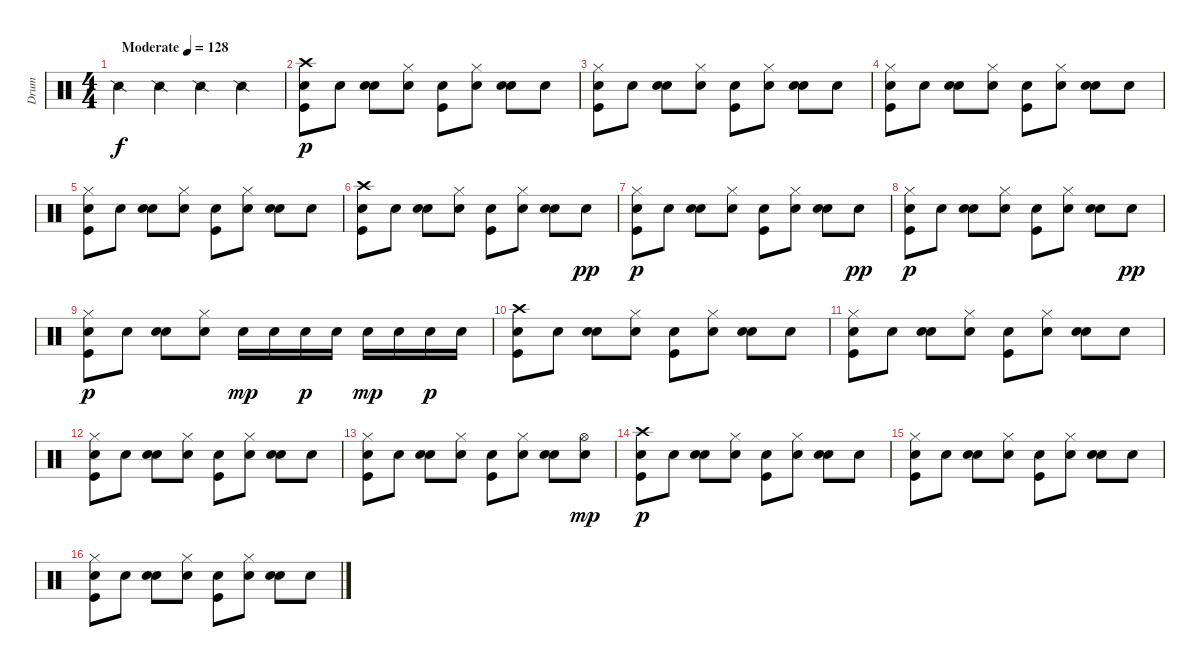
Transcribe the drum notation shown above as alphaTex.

\track ("Drum" "Drum") {instrument percussion}
\staff {score}
\articulation defaults
\ts (4 4)
\tempo (128 "Moderate")
\clef neutral
\ks c "Snare (side stick) 2".4{dy f} "Snare (side stick) 2".4 "Snare (side stick) 2".4 "Snare (side stick) 2".4
|
("Crash high (hit)" "Snare (hit) 2" "Kick (hit)").8{dy p} "Snare (hit) 2".8 ("Snare (hit) 2" "Snare (hit) 2").8 ("Snare (hit) 2" "Hi-Hat (closed)").8 ("Snare (hit) 2" "Kick (hit)").8 ("Snare (hit) 2" "Hi-Hat (closed)").8 ("Snare (hit) 2" "Snare (hit) 2").8 "Snare (hit) 2".8 |
("Snare (hit) 2" "Kick (hit)" "Hi-Hat (closed)").8 "Snare (hit) 2".8 ("Snare (hit) 2" "Snare (hit) 2").8 ("Snare (hit) 2" "Hi-Hat (closed)").8 ("Snare (hit) 2" "Kick (hit)").8 ("Snare (hit) 2" "Hi-Hat (closed)").8 ("Snare (hit) 2" "Snare (hit) 2").8 "Snare (hit) 2".8 |
("Snare (hit) 2" "Kick (hit)" "Hi-Hat (closed)").8 "Snare (hit) 2".8 ("Snare (hit) 2" "Snare (hit) 2").8 ("Snare (hit) 2" "Hi-Hat (closed)").8 ("Snare (hit) 2" "Kick (hit)").8 ("Snare (hit) 2" "Hi-Hat (closed)").8 ("Snare (hit) 2" "Snare (hit) 2").8 "Snare (hit) 2".8 |
("Snare (hit) 2" "Kick (hit)" "Hi-Hat (closed)").8 "Snare (hit) 2".8 ("Snare (hit) 2" "Snare (hit) 2").8 ("Snare (hit) 2" "Hi-Hat (closed)").8 ("Snare (hit) 2" "Kick (hit)").8 ("Snare (hit) 2" "Hi-Hat (closed)").8 ("Snare (hit) 2" "Snare (hit) 2").8 "Snare (hit) 2".8 |
("Crash high (hit)" "Snare (hit) 2" "Kick (hit)").8 "Snare (hit) 2".8 ("Snare (hit) 2" "Snare (hit) 2").8 ("Snare (hit) 2" "Hi-Hat (closed)").8 ("Snare (hit) 2" "Kick (hit)").8 ("Snare (hit) 2" "Hi-Hat (closed)").8 ("Snare (hit) 2" "Snare (hit) 2").8 "Snare (hit) 2".8{dy pp} |
("Snare (hit) 2" "Kick (hit)" "Hi-Hat (closed)").8{dy p} "Snare (hit) 2".8 ("Snare (hit) 2" "Snare (hit) 2").8 ("Snare (hit) 2" "Hi-Hat (closed)").8 ("Snare (hit) 2" "Kick (hit)").8 ("Snare (hit) 2" "Hi-Hat (closed)").8 ("Snare (hit) 2" "Snare (hit) 2").8 "Snare (hit) 2".8{dy pp} |
("Snare (hit) 2" "Kick (hit)" "Hi-Hat (closed)").8{dy p} "Snare (hit) 2".8 ("Snare (hit) 2" "Snare (hit) 2").8 ("Snare (hit) 2" "Hi-Hat (closed)").8 ("Snare (hit) 2" "Kick (hit)").8 ("Snare (hit) 2" "Hi-Hat (closed)").8 ("Snare (hit) 2" "Snare (hit) 2").8 "Snare (hit) 2".8{dy pp} |
("Snare (hit) 2" "Kick (hit)" "Hi-Hat (closed)").8{dy p} "Snare (hit) 2".8 ("Snare (hit) 2" "Snare (hit) 2").8 ("Snare (hit) 2" "Hi-Hat (closed)").8 "Snare (hit) 2".16{dy mp} "Snare (hit) 2".16 "Snare (hit) 2".16{dy p} "Snare (hit) 2".16 "Snare (hit) 2".16{dy mp} "Snare (hit) 2".16 "Snare (hit) 2".16{dy p} "Snare (hit) 2".16 |
("Crash high (hit)" "Snare (hit) 2" "Kick (hit)").8 "Snare (hit) 2".8 ("Snare (hit) 2" "Snare (hit) 2").8 ("Snare (hit) 2" "Hi-Hat (closed)").8 ("Snare (hit) 2" "Kick (hit)").8 ("Snare (hit) 2" "Hi-Hat (closed)").8 ("Snare (hit) 2" "Snare (hit) 2").8 "Snare (hit) 2".8 |
("Snare (hit) 2" "Kick (hit)" "Hi-Hat (closed)").8 "Snare (hit) 2".8 ("Snare (hit) 2" "Snare (hit) 2").8 ("Snare (hit) 2" "Hi-Hat (closed)").8 ("Snare (hit) 2" "Kick (hit)").8 ("Snare (hit) 2" "Hi-Hat (closed)").8 ("Snare (hit) 2" "Snare (hit) 2").8 "Snare (hit) 2".8 |
("Snare (hit) 2" "Kick (hit)" "Hi-Hat (closed)").8 "Snare (hit) 2".8 ("Snare (hit) 2" "Snare (hit) 2").8 ("Snare (hit) 2" "Hi-Hat (closed)").8 ("Snare (hit) 2" "Kick (hit)").8 ("Snare (hit) 2" "Hi-Hat (closed)").8 ("Snare (hit) 2" "Snare (hit) 2").8 "Snare (hit) 2".8 |
("Snare (hit) 2" "Kick (hit)" "Hi-Hat (closed)").8 "Snare (hit) 2".8 ("Snare (hit) 2" "Snare (hit) 2").8 ("Snare (hit) 2" "Hi-Hat (closed)").8 ("Snare (hit) 2" "Kick (hit)").8 ("Snare (hit) 2" "Hi-Hat (closed)").8 ("Snare (hit) 2" "Snare (hit) 2").8 ("Snare (hit) 2" "Hi-Hat (open)").8{dy mp} |
("Crash high (hit)" "Snare (hit) 2" "Kick (hit)").8{dy p} "Snare (hit) 2".8 ("Snare (hit) 2" "Snare (hit) 2").8 ("Snare (hit) 2" "Hi-Hat (closed)").8 ("Snare (hit) 2" "Kick (hit)").8 ("Snare (hit) 2" "Hi-Hat (closed)").8 ("Snare (hit) 2" "Snare (hit) 2").8 "Snare (hit) 2".8 |
("Snare (hit) 2" "Kick (hit)" "Hi-Hat (closed)").8 "Snare (hit) 2".8 ("Snare (hit) 2" "Snare (hit) 2").8 ("Snare (hit) 2" "Hi-Hat (closed)").8 ("Snare (hit) 2" "Kick (hit)").8 ("Snare (hit) 2" "Hi-Hat (closed)").8 ("Snare (hit) 2" "Snare (hit) 2").8 "Snare (hit) 2".8 |
("Snare (hit) 2" "Kick (hit)" "Hi-Hat (closed)").8 "Snare (hit) 2".8 ("Snare (hit) 2" "Snare (hit) 2").8 ("Snare (hit) 2" "Hi-Hat (closed)").8 ("Snare (hit) 2" "Kick (hit)").8 ("Snare (hit) 2" "Hi-Hat (closed)").8 ("Snare (hit) 2" "Snare (hit) 2").8 "Snare (hit) 2".8
